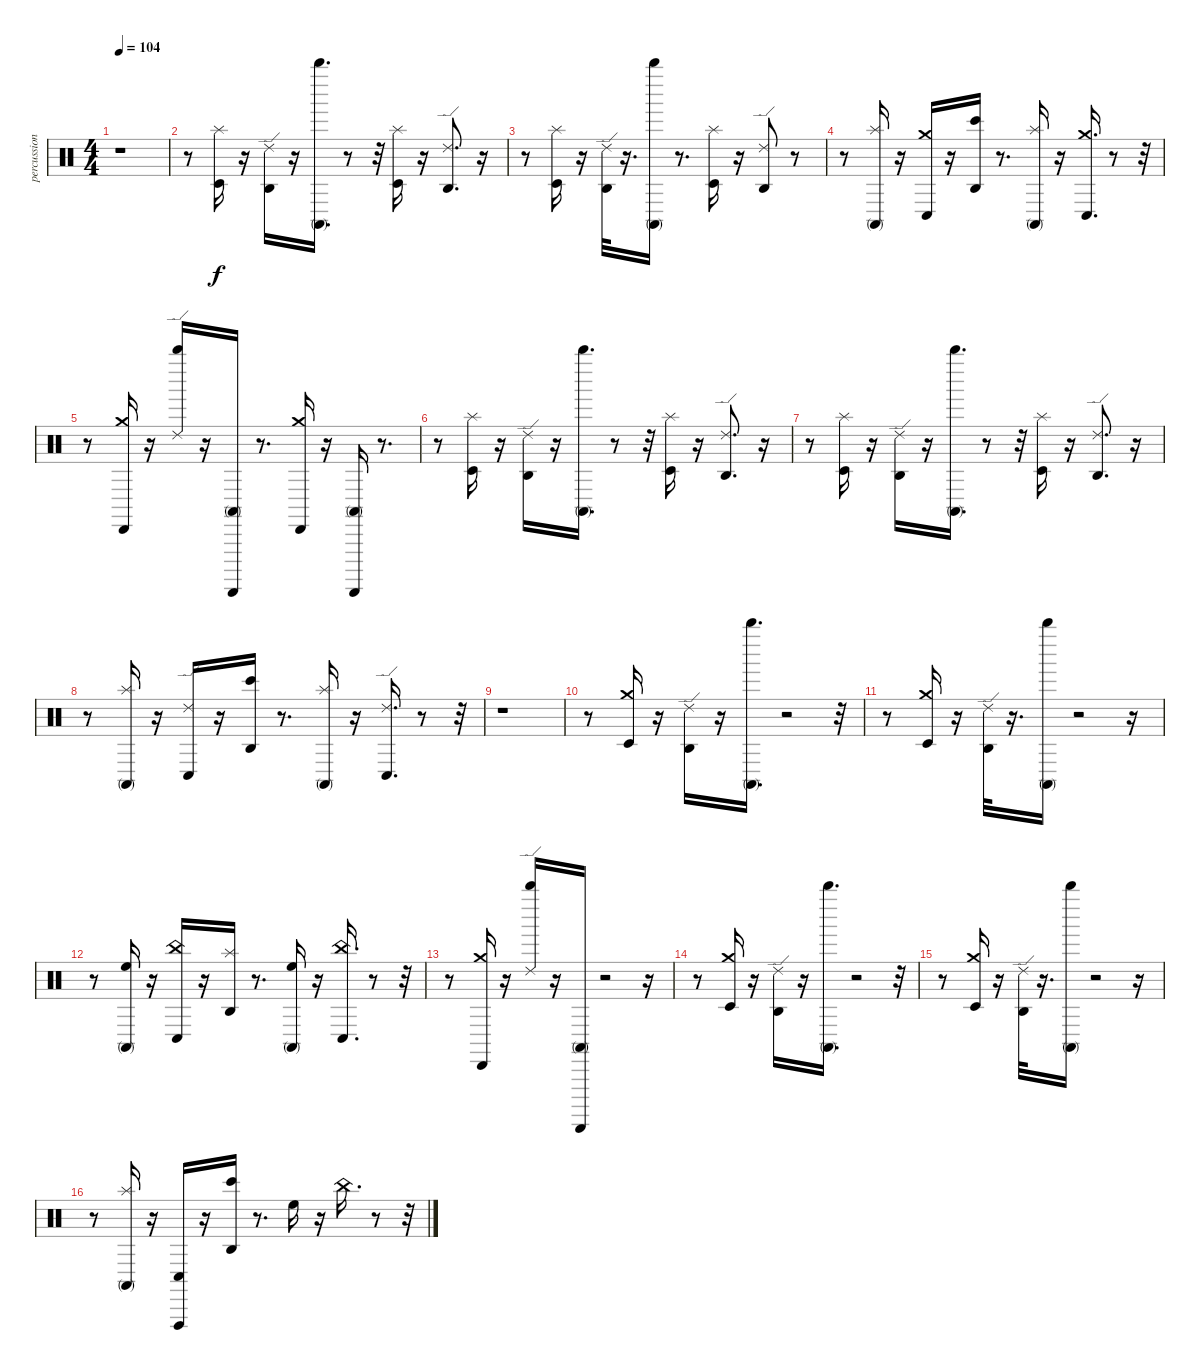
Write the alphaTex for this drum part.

\track ("percussion" "percussion") {instrument percussion}
\staff {score}
\articulation defaults
\ts (4 4)
\tempo 104
\clef neutral
\ks c
r.1{dy f} |
r.8 ("Timbale low (hit)" "Splash (hit)").16 r.16 ("Agogo high (hit)" "Ride (edge) 2").16 r.16 ("Whistle high (hit)" "Conga high (mute)").16{d} r.8 r.32 ("Timbale low (hit)" "Splash (hit)").16 r.16 ("Agogo high (hit)" "Ride (edge) 2").8{d} r.16 |
r.8 ("Timbale low (hit)" "Splash (hit)").16 r.16 ("Agogo high (hit)" "Ride (edge) 2").32 r.16{d} ("Whistle high (hit)" "Conga high (mute)").16 r.8{d} ("Timbale low (hit)" "Splash (hit)").16 r.16 ("Agogo high (hit)" "Ride (edge) 2").8 r.8 |
r.8 ("Conga high (mute)" "Splash (hit)").16 r.16 ("Conga low (hit)" "Crash medium (hit)").16 r.16 ("Agogo high (hit)" "Bongo High (hit)").16 r.8{d} ("Conga high (mute)" "Splash (hit)").16 r.16 ("Conga low (hit)" "Crash medium (hit)").16{d} r.8 r.32 |
r.8 ("Cabasa (hit)" "Crash medium (hit)").16 r.16 ("Ride (edge) 2" "Whistle high (hit)").16 r.16 ("Conga high (mute)" "Guiro (scrap-return)").16 r.8{d} ("Crash medium (hit)" "Cabasa (hit)").16 r.16 ("Guiro (scrap-return)" "Conga high (mute)").16 r.8{d} |
r.8 ("Timbale low (hit)" "Splash (hit)").16 r.16 ("Agogo high (hit)" "Ride (edge) 2").16 r.16 ("Whistle high (hit)" "Conga high (mute)").16{d} r.8 r.32 ("Timbale low (hit)" "Splash (hit)").16 r.16 ("Agogo high (hit)" "Ride (edge) 2").8{d} r.16 |
r.8 ("Splash (hit)" "Timbale low (hit)").16 r.16 ("Agogo high (hit)" "Ride (edge) 2").16 r.16 ("Whistle high (hit)" "Conga high (mute)").16{d} r.8 r.32 ("Timbale low (hit)" "Splash (hit)").16 r.16 ("Agogo high (hit)" "Ride (edge) 2").8{d} r.16 |
r.8 ("Conga high (mute)" "Splash (hit)").16 r.16 ("Conga low (hit)" "Ride (edge) 2").16 r.16 ("Agogo high (hit)" "Bongo High (hit)").16 r.8{d} ("Conga high (mute)" "Splash (hit)").16 r.16 ("Conga low (hit)" "Ride (edge) 2").16{d} r.8 r.32 |
r.1 |
r.8 ("Timbale low (hit)" "Crash medium (hit)").16 r.16 ("Agogo high (hit)" "Ride (edge) 2").16 r.16 ("Whistle high (hit)" "Conga high (mute)").16{d} r.2 r.32 |
r.8 ("Timbale low (hit)" "Crash medium (hit)").16 r.16 ("Agogo high (hit)" "Ride (edge) 2").32 r.16{d} ("Whistle high (hit)" "Conga high (mute)").16 r.2 r.16 |
r.8 ("Conga high (mute)" "High Floor Tom (hit)").16 r.16 ("Conga low (hit)" "China (hit)").16 r.16 ("Agogo high (hit)" "Splash (hit)").16 r.8{d} ("Conga high (mute)" "High Floor Tom (hit)").16 r.16 ("Conga low (hit)" "China (hit)").16{d} r.8 r.32 |
r.8 ("Cabasa (hit)" "Crash medium (hit)").16 r.16 ("Whistle high (hit)" "Ride (edge) 2").16 r.16 ("Guiro (scrap-return)" "Conga high (mute)").16 r.2 r.16 |
r.8 ("Timbale low (hit)" "Crash medium (hit)").16 r.16 ("Agogo high (hit)" "Ride (edge) 2").16 r.16 ("Whistle high (hit)" "Conga high (mute)").16{d} r.2 r.32 |
r.8 ("Timbale low (hit)" "Crash medium (hit)").16 r.16 ("Agogo high (hit)" "Ride (edge) 2").32 r.16{d} ("Whistle high (hit)" "Conga high (mute)").16 r.2 r.16 |
r.8 ("Conga high (mute)" "Splash (hit)").16 r.16 ("Conga low (hit)" "Vibraslap (hit)").16 r.16 ("Agogo high (hit)" "Bongo High (hit)").16 r.8{d} "High Floor Tom (hit)".16 r.16 "China (hit)".16{d} r.8 r.32
